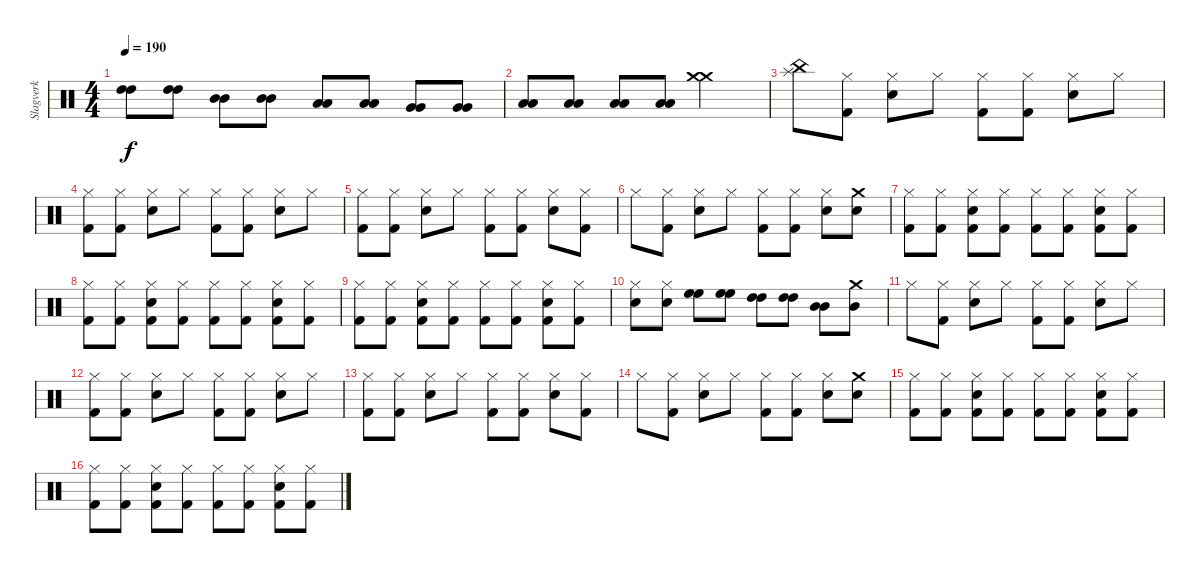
\track ("Slagverk" "Slagverk") {instrument percussion}
\staff {score}
\articulation defaults
\ts (4 4)
\tempo 190
\clef neutral
\ks c
("High Tom (hit)" "High Tom (hit)").8{dy f} ("High Tom (hit)" "High Tom (hit)").8 ("Mid Tom (hit)" "Mid Tom (hit)").8 ("Mid Tom (hit)" "Mid Tom (hit)").8 ("Low Tom (hit)" "Low Tom (hit)").8 ("Low Tom (hit)" "Low Tom (hit)").8 ("Very Low Tom (hit)" "Very Low Tom (hit)").8 ("Very Low Tom (hit)" "Very Low Tom (hit)").8 |
("Low Floor Tom (hit)" "Low Floor Tom (hit)").8 ("Low Floor Tom (hit)" "Low Floor Tom (hit)").8 ("Low Floor Tom (hit)" "Low Floor Tom (hit)").8 ("Low Floor Tom (hit)" "Low Floor Tom (hit)").8 ("Crash medium (hit)" "Crash medium (hit)").2 |
("China (hit)" "Splash (hit)").8 ("Hi-Hat (closed)" "Kick (hit) 2").8 ("Hi-Hat (closed)" "Snare (hit) 2").8 "Hi-Hat (closed)".8 ("Hi-Hat (closed)" "Kick (hit) 2").8 ("Hi-Hat (closed)" "Kick (hit) 2").8 ("Hi-Hat (closed)" "Snare (hit) 2").8 "Hi-Hat (closed)".8 |
("Hi-Hat (closed)" "Kick (hit) 2").8 ("Hi-Hat (closed)" "Kick (hit) 2").8 ("Hi-Hat (closed)" "Snare (hit) 2").8 "Hi-Hat (closed)".8 ("Hi-Hat (closed)" "Kick (hit) 2").8 ("Hi-Hat (closed)" "Kick (hit) 2").8 ("Hi-Hat (closed)" "Snare (hit) 2").8 "Hi-Hat (closed)".8 |
("Hi-Hat (closed)" "Kick (hit) 2").8 ("Hi-Hat (closed)" "Kick (hit) 2").8 ("Hi-Hat (closed)" "Snare (hit) 2").8 "Hi-Hat (closed)".8 ("Hi-Hat (closed)" "Kick (hit) 2").8 ("Hi-Hat (closed)" "Kick (hit) 2").8 ("Hi-Hat (closed)" "Snare (hit) 2").8 ("Hi-Hat (closed)" "Kick (hit) 2").8 |
"Hi-Hat (closed)".8 ("Hi-Hat (closed)" "Kick (hit) 2").8 ("Hi-Hat (closed)" "Snare (hit) 2").8 "Hi-Hat (closed)".8 ("Hi-Hat (closed)" "Kick (hit) 2").8 ("Hi-Hat (closed)" "Kick (hit) 2").8 ("Hi-Hat (closed)" "Snare (hit) 2").8 ("Crash medium (hit)" "Snare (hit) 2").8 |
("Hi-Hat (closed)" "Kick (hit) 2").8 ("Hi-Hat (closed)" "Kick (hit) 2").8 ("Hi-Hat (closed)" "Snare (hit) 2" "Kick (hit) 2").8 ("Hi-Hat (closed)" "Kick (hit) 2").8 ("Hi-Hat (closed)" "Kick (hit) 2").8 ("Hi-Hat (closed)" "Kick (hit) 2").8 ("Hi-Hat (closed)" "Snare (hit) 2" "Kick (hit) 2").8 ("Hi-Hat (closed)" "Kick (hit) 2").8 |
("Hi-Hat (closed)" "Kick (hit) 2").8 ("Hi-Hat (closed)" "Kick (hit) 2").8 ("Hi-Hat (closed)" "Snare (hit) 2" "Kick (hit) 2").8 ("Hi-Hat (closed)" "Kick (hit) 2").8 ("Hi-Hat (closed)" "Kick (hit) 2").8 ("Hi-Hat (closed)" "Kick (hit) 2").8 ("Hi-Hat (closed)" "Snare (hit) 2" "Kick (hit) 2").8 ("Hi-Hat (closed)" "Kick (hit) 2").8 |
("Hi-Hat (closed)" "Kick (hit) 2").8 ("Hi-Hat (closed)" "Kick (hit) 2").8 ("Hi-Hat (closed)" "Snare (hit) 2" "Kick (hit) 2").8 ("Hi-Hat (closed)" "Kick (hit) 2").8 ("Hi-Hat (closed)" "Kick (hit) 2").8 ("Hi-Hat (closed)" "Kick (hit) 2").8 ("Hi-Hat (closed)" "Snare (hit) 2" "Kick (hit) 2").8 ("Hi-Hat (closed)" "Kick (hit) 2").8 |
("Hi-Hat (closed)" "Snare (hit) 2").8 ("Hi-Hat (closed)" "Snare (hit) 2").8 ("High Floor Tom (hit)" "High Floor Tom (hit)").8 ("High Floor Tom (hit)" "High Floor Tom (hit)").8 ("High Tom (hit)" "High Tom (hit)").8 ("High Tom (hit)" "High Tom (hit)").8 ("Mid Tom (hit)" "Mid Tom (hit)").8 ("Crash medium (hit)" "Mid Tom (hit)").8 |
"Hi-Hat (closed)".8 ("Hi-Hat (closed)" "Kick (hit) 2").8 ("Hi-Hat (closed)" "Snare (hit) 2").8 "Hi-Hat (closed)".8 ("Hi-Hat (closed)" "Kick (hit) 2").8 ("Hi-Hat (closed)" "Kick (hit) 2").8 ("Hi-Hat (closed)" "Snare (hit) 2").8 "Hi-Hat (closed)".8 |
("Hi-Hat (closed)" "Kick (hit) 2").8 ("Hi-Hat (closed)" "Kick (hit) 2").8 ("Hi-Hat (closed)" "Snare (hit) 2").8 "Hi-Hat (closed)".8 ("Hi-Hat (closed)" "Kick (hit) 2").8 ("Hi-Hat (closed)" "Kick (hit) 2").8 ("Hi-Hat (closed)" "Snare (hit) 2").8 "Hi-Hat (closed)".8 |
("Hi-Hat (closed)" "Kick (hit) 2").8 ("Hi-Hat (closed)" "Kick (hit) 2").8 ("Hi-Hat (closed)" "Snare (hit) 2").8 "Hi-Hat (closed)".8 ("Hi-Hat (closed)" "Kick (hit) 2").8 ("Hi-Hat (closed)" "Kick (hit) 2").8 ("Hi-Hat (closed)" "Snare (hit) 2").8 ("Hi-Hat (closed)" "Kick (hit) 2").8 |
"Hi-Hat (closed)".8 ("Hi-Hat (closed)" "Kick (hit) 2").8 ("Hi-Hat (closed)" "Snare (hit) 2").8 "Hi-Hat (closed)".8 ("Hi-Hat (closed)" "Kick (hit) 2").8 ("Hi-Hat (closed)" "Kick (hit) 2").8 ("Hi-Hat (closed)" "Snare (hit) 2").8 ("Crash medium (hit)" "Snare (hit) 2").8 |
("Hi-Hat (closed)" "Kick (hit) 2").8 ("Hi-Hat (closed)" "Kick (hit) 2").8 ("Hi-Hat (closed)" "Snare (hit) 2" "Kick (hit) 2").8 ("Hi-Hat (closed)" "Kick (hit) 2").8 ("Hi-Hat (closed)" "Kick (hit) 2").8 ("Hi-Hat (closed)" "Kick (hit) 2").8 ("Hi-Hat (closed)" "Snare (hit) 2" "Kick (hit) 2").8 ("Hi-Hat (closed)" "Kick (hit) 2").8 |
("Hi-Hat (closed)" "Kick (hit) 2").8 ("Hi-Hat (closed)" "Kick (hit) 2").8 ("Hi-Hat (closed)" "Snare (hit) 2" "Kick (hit) 2").8 ("Hi-Hat (closed)" "Kick (hit) 2").8 ("Hi-Hat (closed)" "Kick (hit) 2").8 ("Hi-Hat (closed)" "Kick (hit) 2").8 ("Hi-Hat (closed)" "Snare (hit) 2" "Kick (hit) 2").8 ("Hi-Hat (closed)" "Kick (hit) 2").8
